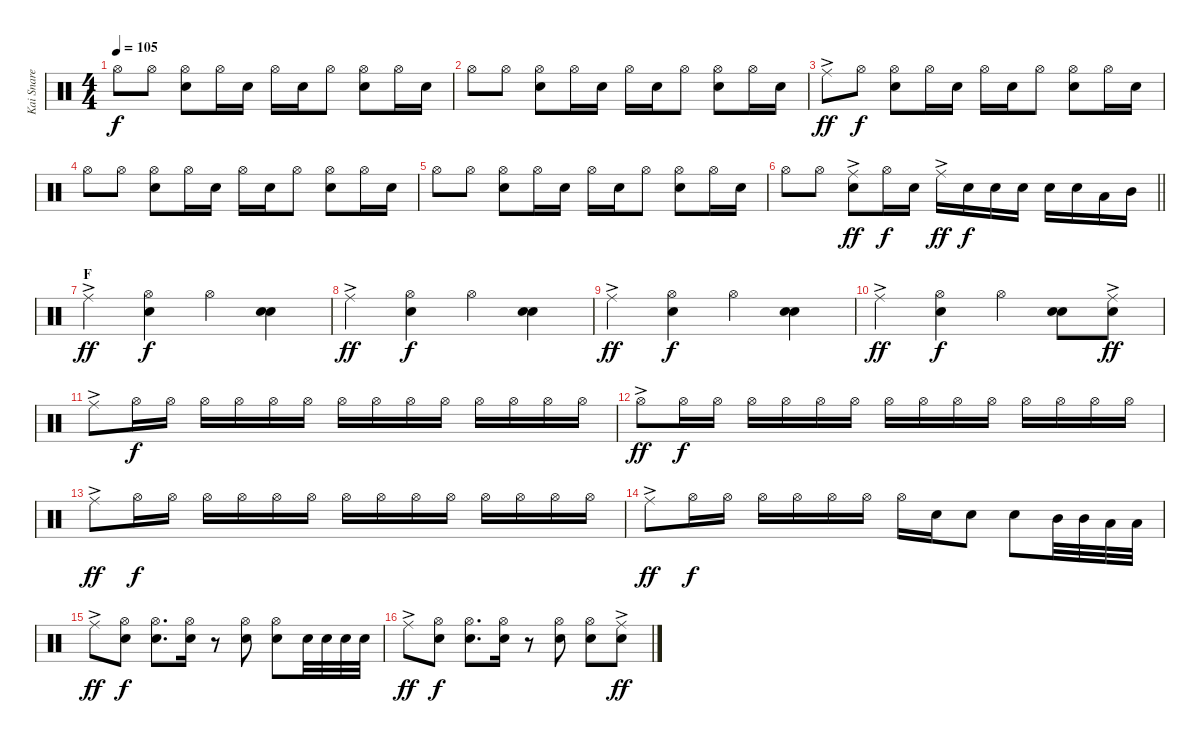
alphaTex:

\track ("Kai Snare" "Kai Snare") {instrument percussion}
\staff {score}
\articulation defaults
\ts (4 4)
\tempo 105
\clef neutral
\ks c "Hi-Hat (open)".8{dy f} "Hi-Hat (open)".8
("Hi-Hat (open)" "Snare (hit) 2").8 "Hi-Hat (open)".16 "Snare (hit) 2".16 "Hi-Hat (open)".16 "Snare (hit) 2".16 "Hi-Hat (open)".8 ("Hi-Hat (open)" "Snare (hit) 2").8 "Hi-Hat (open)".16 "Snare (hit) 2".16 |
"Hi-Hat (open)".8 "Hi-Hat (open)".8 ("Hi-Hat (open)" "Snare (hit) 2").8 "Hi-Hat (open)".16 "Snare (hit) 2".16 "Hi-Hat (open)".16 "Snare (hit) 2".16 "Hi-Hat (open)".8 ("Hi-Hat (open)" "Snare (hit) 2").8 "Hi-Hat (open)".16 "Snare (hit) 2".16 |
"Ride (middle)"{ac}.8{dy ff} "Hi-Hat (open)".8{dy f} ("Hi-Hat (open)" "Snare (hit) 2").8 "Hi-Hat (open)".16 "Snare (hit) 2".16 "Hi-Hat (open)".16 "Snare (hit) 2".16 "Hi-Hat (open)".8 ("Hi-Hat (open)" "Snare (hit) 2").8 "Hi-Hat (open)".16 "Snare (hit) 2".16 |
"Hi-Hat (open)".8 "Hi-Hat (open)".8 ("Hi-Hat (open)" "Snare (hit) 2").8 "Hi-Hat (open)".16 "Snare (hit) 2".16 "Hi-Hat (open)".16 "Snare (hit) 2".16 "Hi-Hat (open)".8 ("Hi-Hat (open)" "Snare (hit) 2").8 "Hi-Hat (open)".16 "Snare (hit) 2".16 |
"Hi-Hat (open)".8 "Hi-Hat (open)".8 ("Hi-Hat (open)" "Snare (hit) 2").8 "Hi-Hat (open)".16 "Snare (hit) 2".16 "Hi-Hat (open)".16 "Snare (hit) 2".16 "Hi-Hat (open)".8 ("Hi-Hat (open)" "Snare (hit) 2").8 "Hi-Hat (open)".16 "Snare (hit) 2".16 |
\barLineRight lightlight "Hi-Hat (open)".8 "Hi-Hat (open)".8
("Ride (middle)"{ac} "Snare (hit) 2").8{dy ff} "Hi-Hat (open)".16{dy f} "Snare (hit) 2".16 "Ride (middle)"{ac}.16{dy ff} "Snare (hit) 2".16{dy f} "Snare (hit) 2".16 "Snare (hit) 2".16 "Snare (hit) 2".16 "Snare (hit) 2".16 "Low Tom (hit)".16 "Mid Tom (hit)".16 |
\section ("" "F")
"Ride (middle)"{ac}.4{dy ff} ("Hi-Hat (open)" "Snare (hit) 2").4{dy f} "Hi-Hat (open)".4 ("Snare (hit) 2" "Snare (hit) 2").4 |
"Ride (middle)"{ac}.4{dy ff} ("Hi-Hat (open)" "Snare (hit) 2").4{dy f} "Hi-Hat (open)".4 ("Snare (hit) 2" "Snare (hit) 2").4 |
"Ride (middle)"{ac}.4{dy ff} ("Hi-Hat (open)" "Snare (hit) 2").4{dy f} "Hi-Hat (open)".4 ("Snare (hit) 2" "Snare (hit) 2").4 |
"Ride (middle)"{ac}.4{dy ff} ("Hi-Hat (open)" "Snare (hit) 2").4{dy f} "Hi-Hat (open)".4 ("Snare (hit) 2" "Snare (hit) 2").8 ("Ride (middle)"{ac} "Snare (hit) 2").8{dy ff} |
"Ride (middle)"{ac}.8{volume 0} "Hi-Hat (open)".16{dy f volume 13} "Hi-Hat (open)".16 "Hi-Hat (open)".16 "Hi-Hat (open)".16 "Hi-Hat (open)".16 "Hi-Hat (open)".16 "Hi-Hat (open)".16 "Hi-Hat (open)".16 "Hi-Hat (open)".16 "Hi-Hat (open)".16 "Hi-Hat (open)".16 "Hi-Hat (open)".16 "Hi-Hat (open)".16 "Hi-Hat (open)".16 |
"Hi-Hat (open)"{ac}.8{dy ff} "Hi-Hat (open)".16{dy f} "Hi-Hat (open)".16 "Hi-Hat (open)".16 "Hi-Hat (open)".16 "Hi-Hat (open)".16 "Hi-Hat (open)".16 "Hi-Hat (open)".16 "Hi-Hat (open)".16 "Hi-Hat (open)".16 "Hi-Hat (open)".16 "Hi-Hat (open)".16 "Hi-Hat (open)".16 "Hi-Hat (open)".16 "Hi-Hat (open)".16 |
"Ride (middle)"{ac}.8{dy ff} "Hi-Hat (open)".16{dy f} "Hi-Hat (open)".16 "Hi-Hat (open)".16 "Hi-Hat (open)".16 "Hi-Hat (open)".16 "Hi-Hat (open)".16 "Hi-Hat (open)".16 "Hi-Hat (open)".16 "Hi-Hat (open)".16 "Hi-Hat (open)".16 "Hi-Hat (open)".16 "Hi-Hat (open)".16 "Hi-Hat (open)".16 "Hi-Hat (open)".16 |
"Ride (middle)"{ac}.8{dy ff} "Hi-Hat (open)".16{dy f} "Hi-Hat (open)".16 "Hi-Hat (open)".16 "Hi-Hat (open)".16 "Hi-Hat (open)".16 "Hi-Hat (open)".16 "Hi-Hat (open)".16 "Snare (hit) 2".16 "Snare (hit) 2".8 "Snare (hit) 2".8 "Mid Tom (hit)".32 "Mid Tom (hit)".32 "Low Tom (hit)".32 "Low Tom (hit)".32 |
"Ride (middle)"{ac}.8{dy ff} ("Hi-Hat (open)" "Snare (hit) 2").8{dy f} ("Hi-Hat (open)" "Snare (hit) 2").8{d} ("Hi-Hat (open)" "Snare (hit) 2").16 r.8 ("Hi-Hat (open)" "Snare (hit) 2").8 ("Hi-Hat (open)" "Snare (hit) 2").8 "Snare (hit) 2".32 "Snare (hit) 2".32 "Snare (hit) 2".32 "Snare (hit) 2".32 |
"Ride (middle)"{ac}.8{dy ff} ("Hi-Hat (open)" "Snare (hit) 2").8{dy f} ("Hi-Hat (open)" "Snare (hit) 2").8{d} ("Hi-Hat (open)" "Snare (hit) 2").16 r.8 ("Hi-Hat (open)" "Snare (hit) 2").8 ("Hi-Hat (open)" "Snare (hit) 2").8 ("Ride (middle)"{ac} "Snare (hit) 2").8{dy ff}
